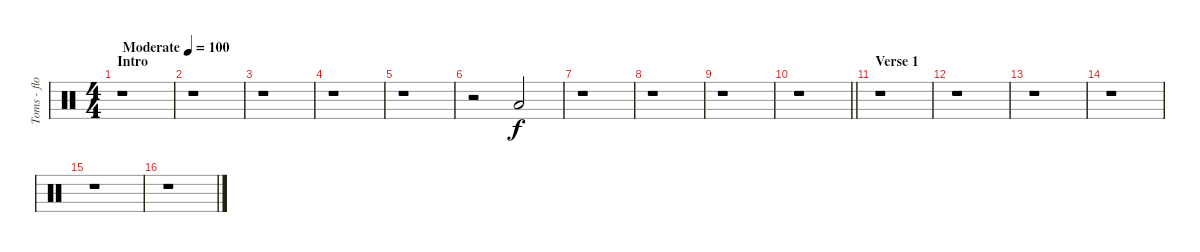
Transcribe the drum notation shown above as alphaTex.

\track ("Toms - floor" "Toms - flo") {instrument percussion}
\staff {score}
\articulation defaults
\ts (4 4)
\section ("" "Intro")
\tempo (100 "Moderate")
\clef neutral
\ks c
r.1{dy f balance 3} |
r.1 |
r.1 |
r.1 |
r.1 |
r.2 "Low Floor Tom (hit)".2 |
r.1 |
r.1 |
r.1 |
\barLineRight lightlight
r.1 |
\section ("" "Verse 1")
r.1 |
r.1 |
r.1 |
r.1 |
r.1 |
r.1
